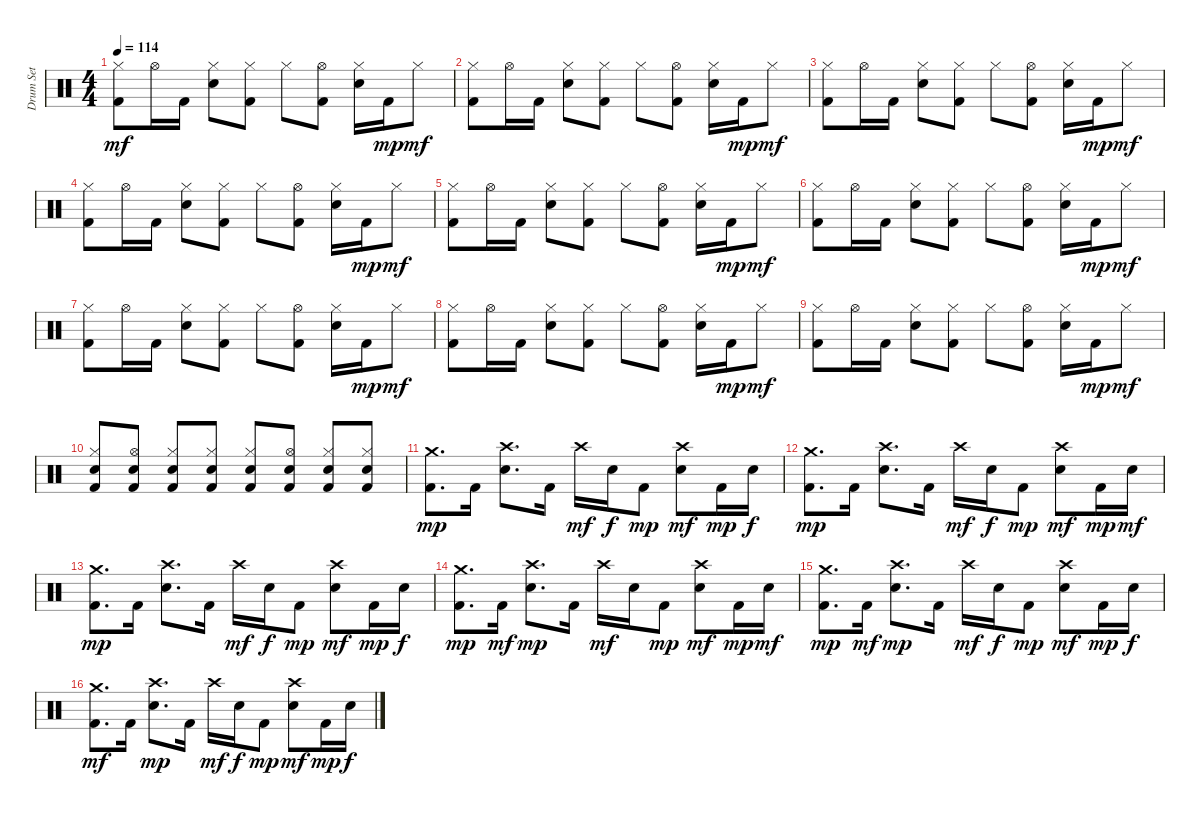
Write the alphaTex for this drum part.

\track ("Drum Set" "Drum Set") {instrument percussion}
\staff {score}
\articulation defaults
\ts (4 4)
\tempo 114
\clef neutral
\ks c
("Kick (hit) 2" "Hi-Hat (closed)").8{dy mf} "Hi-Hat (open)".16 "Kick (hit) 2".16 ("Snare (hit) 2" "Hi-Hat (closed)").8 ("Kick (hit) 2" "Hi-Hat (closed)").8 "Hi-Hat (closed)".8 ("Kick (hit) 2" "Hi-Hat (open)").8 ("Snare (hit) 2" "Hi-Hat (closed)").16 "Kick (hit) 2".16{dy mp} "Hi-Hat (closed)".8{dy mf} |
("Kick (hit) 2" "Hi-Hat (closed)").8 "Hi-Hat (open)".16 "Kick (hit) 2".16 ("Snare (hit) 2" "Hi-Hat (closed)").8 ("Kick (hit) 2" "Hi-Hat (closed)").8 "Hi-Hat (closed)".8 ("Kick (hit) 2" "Hi-Hat (open)").8 ("Snare (hit) 2" "Hi-Hat (closed)").16 "Kick (hit) 2".16{dy mp} "Hi-Hat (closed)".8{dy mf} |
("Kick (hit) 2" "Hi-Hat (closed)").8 "Hi-Hat (open)".16 "Kick (hit) 2".16 ("Snare (hit) 2" "Hi-Hat (closed)").8 ("Kick (hit) 2" "Hi-Hat (closed)").8 "Hi-Hat (closed)".8 ("Kick (hit) 2" "Hi-Hat (open)").8 ("Snare (hit) 2" "Hi-Hat (closed)").16 "Kick (hit) 2".16{dy mp} "Hi-Hat (closed)".8{dy mf} |
("Kick (hit) 2" "Hi-Hat (closed)").8 "Hi-Hat (open)".16 "Kick (hit) 2".16 ("Snare (hit) 2" "Hi-Hat (closed)").8 ("Kick (hit) 2" "Hi-Hat (closed)").8 "Hi-Hat (closed)".8 ("Kick (hit) 2" "Hi-Hat (open)").8 ("Snare (hit) 2" "Hi-Hat (closed)").16 "Kick (hit) 2".16{dy mp} "Hi-Hat (closed)".8{dy mf} |
("Kick (hit) 2" "Hi-Hat (closed)").8 "Hi-Hat (open)".16 "Kick (hit) 2".16 ("Snare (hit) 2" "Hi-Hat (closed)").8 ("Kick (hit) 2" "Hi-Hat (closed)").8 "Hi-Hat (closed)".8 ("Kick (hit) 2" "Hi-Hat (open)").8 ("Snare (hit) 2" "Hi-Hat (closed)").16 "Kick (hit) 2".16{dy mp} "Hi-Hat (closed)".8{dy mf} |
("Kick (hit) 2" "Hi-Hat (closed)").8 "Hi-Hat (open)".16 "Kick (hit) 2".16 ("Snare (hit) 2" "Hi-Hat (closed)").8 ("Kick (hit) 2" "Hi-Hat (closed)").8 "Hi-Hat (closed)".8 ("Kick (hit) 2" "Hi-Hat (open)").8 ("Snare (hit) 2" "Hi-Hat (closed)").16 "Kick (hit) 2".16{dy mp} "Hi-Hat (closed)".8{dy mf} |
("Kick (hit) 2" "Hi-Hat (closed)").8 "Hi-Hat (open)".16 "Kick (hit) 2".16 ("Snare (hit) 2" "Hi-Hat (closed)").8 ("Kick (hit) 2" "Hi-Hat (closed)").8 "Hi-Hat (closed)".8 ("Kick (hit) 2" "Hi-Hat (open)").8 ("Snare (hit) 2" "Hi-Hat (closed)").16 "Kick (hit) 2".16{dy mp} "Hi-Hat (closed)".8{dy mf} |
("Kick (hit) 2" "Hi-Hat (closed)").8 "Hi-Hat (open)".16 "Kick (hit) 2".16 ("Snare (hit) 2" "Hi-Hat (closed)").8 ("Kick (hit) 2" "Hi-Hat (closed)").8 "Hi-Hat (closed)".8 ("Kick (hit) 2" "Hi-Hat (open)").8 ("Snare (hit) 2" "Hi-Hat (closed)").16 "Kick (hit) 2".16{dy mp} "Hi-Hat (closed)".8{dy mf} |
("Kick (hit) 2" "Hi-Hat (closed)").8 "Hi-Hat (open)".16 "Kick (hit) 2".16 ("Snare (hit) 2" "Hi-Hat (closed)").8 ("Kick (hit) 2" "Hi-Hat (closed)").8 "Hi-Hat (closed)".8 ("Kick (hit) 2" "Hi-Hat (open)").8 ("Snare (hit) 2" "Hi-Hat (closed)").16 "Kick (hit) 2".16{dy mp} "Hi-Hat (closed)".8{dy mf} |
("Kick (hit) 2" "Snare (hit) 2" "Hi-Hat (closed)").8 ("Kick (hit) 2" "Snare (hit) 2" "Hi-Hat (open)").8 ("Kick (hit) 2" "Snare (hit) 2" "Hi-Hat (closed)").8 ("Kick (hit) 2" "Snare (hit) 2" "Hi-Hat (closed)").8 ("Kick (hit) 2" "Snare (hit) 2" "Hi-Hat (closed)").8 ("Kick (hit) 2" "Snare (hit) 2" "Hi-Hat (open)").8 ("Kick (hit) 2" "Snare (hit) 2" "Hi-Hat (closed)").8 ("Kick (hit) 2" "Snare (hit) 2" "Hi-Hat (closed)").8 |
("Kick (hit) 2" "Crash medium (hit)").8{d dy mp} "Kick (hit) 2".16 ("Snare (hit) 2" "Crash high (hit)").8{d} "Kick (hit) 2".16 "Crash high (hit)".16{dy mf} "Snare (hit) 2".16{dy f} "Kick (hit) 2".8{dy mp} ("Snare (hit) 2" "Crash high (hit)").8{dy mf} "Kick (hit) 2".16{dy mp} "Snare (hit) 2".16{dy f} |
("Kick (hit) 2" "Crash medium (hit)").8{d dy mp} "Kick (hit) 2".16 ("Snare (hit) 2" "Crash high (hit)").8{d} "Kick (hit) 2".16 "Crash high (hit)".16{dy mf} "Snare (hit) 2".16{dy f} "Kick (hit) 2".8{dy mp} ("Snare (hit) 2" "Crash high (hit)").8{dy mf} "Kick (hit) 2".16{dy mp} "Snare (hit) 2".16{dy mf} |
("Kick (hit) 2" "Crash medium (hit)").8{d dy mp} "Kick (hit) 2".16 ("Snare (hit) 2" "Crash high (hit)").8{d} "Kick (hit) 2".16 "Crash high (hit)".16{dy mf} "Snare (hit) 2".16{dy f} "Kick (hit) 2".8{dy mp} ("Snare (hit) 2" "Crash high (hit)").8{dy mf} "Kick (hit) 2".16{dy mp} "Snare (hit) 2".16{dy f} |
("Kick (hit) 2" "Crash medium (hit)").8{d dy mp} "Kick (hit) 2".16{dy mf} ("Snare (hit) 2" "Crash high (hit)").8{d dy mp} "Kick (hit) 2".16 "Crash high (hit)".16{dy mf} "Snare (hit) 2".16 "Kick (hit) 2".8{dy mp} ("Snare (hit) 2" "Crash high (hit)").8{dy mf} "Kick (hit) 2".16{dy mp} "Snare (hit) 2".16{dy mf} |
("Kick (hit) 2" "Crash medium (hit)").8{d dy mp} "Kick (hit) 2".16{dy mf} ("Snare (hit) 2" "Crash high (hit)").8{d dy mp} "Kick (hit) 2".16 "Crash high (hit)".16{dy mf} "Snare (hit) 2".16{dy f} "Kick (hit) 2".8{dy mp} ("Snare (hit) 2" "Crash high (hit)").8{dy mf} "Kick (hit) 2".16{dy mp} "Snare (hit) 2".16{dy f} |
("Kick (hit) 2" "Crash medium (hit)").8{d dy mf} "Kick (hit) 2".16 ("Snare (hit) 2" "Crash high (hit)").8{d dy mp} "Kick (hit) 2".16 "Crash high (hit)".16{dy mf} "Snare (hit) 2".16{dy f} "Kick (hit) 2".8{dy mp} ("Snare (hit) 2" "Crash high (hit)").8{dy mf} "Kick (hit) 2".16{dy mp} "Snare (hit) 2".16{dy f}
